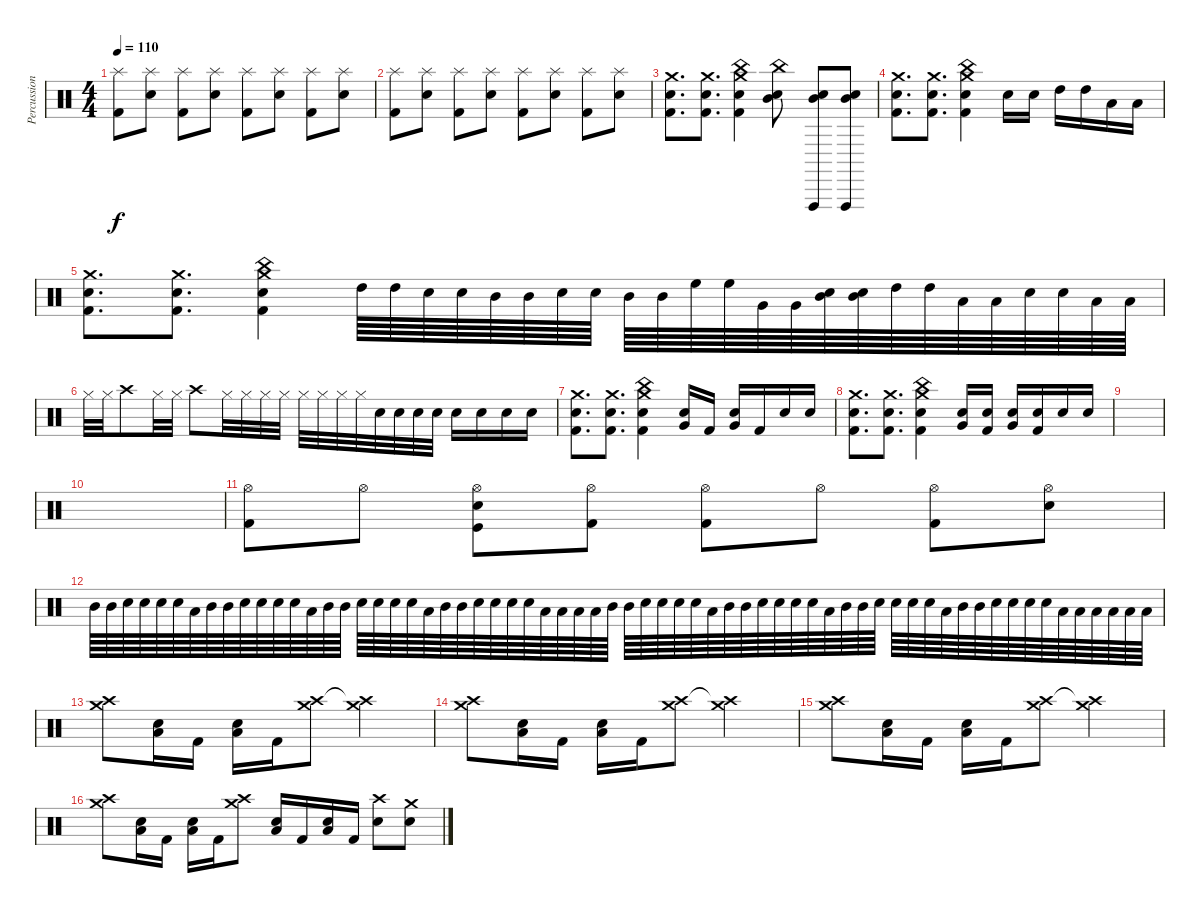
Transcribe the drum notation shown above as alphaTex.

\track ("Percussion" "Percussion") {instrument percussion}
\staff {score}
\articulation defaults
\ts (4 4)
\tempo 110
\clef neutral
\ks c
("Splash (hit)" "Kick (hit) 2").8{dy f} ("Splash (hit)" "Snare (hit) 2").8 ("Splash (hit)" "Kick (hit) 2").8 ("Splash (hit)" "Snare (hit) 2").8 ("Splash (hit)" "Kick (hit) 2").8 ("Splash (hit)" "Snare (hit) 2").8 ("Splash (hit)" "Kick (hit) 2").8 ("Splash (hit)" "Snare (hit) 2").8 |
("Splash (hit)" "Kick (hit) 2").8 ("Splash (hit)" "Snare (hit) 2").8 ("Splash (hit)" "Kick (hit) 2").8 ("Splash (hit)" "Snare (hit) 2").8 ("Splash (hit)" "Kick (hit) 2").8 ("Splash (hit)" "Snare (hit) 2").8 ("Splash (hit)" "Kick (hit) 2").8 ("Splash (hit)" "Snare (hit) 2").8 |
("Crash medium (hit)" "Snare (hit) 2" "Kick (hit) 2").8{d} ("Crash medium (hit)" "Snare (hit) 2" "Kick (hit) 2").8{d} ("Crash medium (hit)" "China (hit)" "Snare (hit) 2" "Kick (hit) 2").4 ("China (hit)" "Snare (hit) 2" "Mid Tom (hit)").8 ("Vibraslap (hit)" "Snare (hit) 2" "Mid Tom (hit)").8 ("Vibraslap (hit)" "Snare (hit) 2" "Mid Tom (hit)").8 |
("Crash medium (hit)" "Snare (hit) 2" "Kick (hit) 2").8{d} ("Crash medium (hit)" "Snare (hit) 2" "Kick (hit) 2").8{d} ("Crash medium (hit)" "China (hit)" "Snare (hit) 2" "Kick (hit) 2").4 "Snare (hit) 2".16 "Snare (hit) 2".16 "High Tom (hit)".16 "High Tom (hit)".16 "Low Floor Tom (hit)".16 "Low Floor Tom (hit)".16 |
("Crash medium (hit)" "Snare (hit) 2" "Kick (hit) 2").8{d} ("Crash medium (hit)" "Snare (hit) 2" "Kick (hit) 2").8{d} ("Crash medium (hit)" "China (hit)" "Snare (hit) 2" "Kick (hit) 2").4 "High Tom (hit)".64 "High Tom (hit)".64 "Snare (hit) 2".64 "Snare (hit) 2".64 "Mid Tom (hit)".64 "Mid Tom (hit)".64 "Snare (hit) 2".64 "Snare (hit) 2".64 "Mid Tom (hit)".64 "Mid Tom (hit)".64 "High Floor Tom (hit)".64 "High Floor Tom (hit)".64 "Very Low Tom (hit)".64 "Very Low Tom (hit)".64 ("Snare (hit) 2" "Mid Tom (hit)").64 ("Snare (hit) 2" "Mid Tom (hit)").64 "High Tom (hit)".64 "High Tom (hit)".64 "Low Tom (hit)".64 "Low Tom (hit)".64 "Snare (hit) 2".64 "Snare (hit) 2".64 "Low Floor Tom (hit)".64 "Low Floor Tom (hit)".64 |
"Hi-Hat (closed)".32 "Hi-Hat (closed)".32 "Crash high (hit)".8 "Hi-Hat (closed)".32 "Hi-Hat (closed)".32 "Crash high (hit)".8 "Hi-Hat (closed)".32 "Hi-Hat (closed)".32 "Hi-Hat (closed)".32 "Hi-Hat (closed)".32 "Hi-Hat (closed)".32 "Hi-Hat (closed)".32 "Hi-Hat (closed)".32 "Hi-Hat (closed)".32 "Snare (hit) 2".32 "Snare (hit) 2".32 "Snare (hit) 2".32 "Snare (hit) 2".32 "Snare (hit) 2".16 "Snare (hit) 2".16 "Snare (hit) 2".16 "Snare (hit) 2".16 |
("Crash medium (hit)" "Snare (hit) 2" "Kick (hit) 2").8{d} ("Crash medium (hit)" "Snare (hit) 2" "Kick (hit) 2").8{d} ("Crash medium (hit)" "China (hit)" "Snare (hit) 2" "Kick (hit) 2").4 ("Very Low Tom (hit)" "Snare (hit) 2").16 "Kick (hit) 2".16 ("Very Low Tom (hit)" "Snare (hit) 2").16 "Kick (hit) 2".16 "Snare (hit) 2".16 "Snare (hit) 2".16 |
("Crash medium (hit)" "Snare (hit) 2" "Kick (hit) 2").8{d} ("Crash medium (hit)" "Snare (hit) 2" "Kick (hit) 2").8{d} ("Crash medium (hit)" "China (hit)" "Snare (hit) 2" "Kick (hit) 2").4 ("Very Low Tom (hit)" "Snare (hit) 2").16 ("Snare (hit) 2" "Kick (hit) 2").16 ("Very Low Tom (hit)" "Snare (hit) 2").16 ("Snare (hit) 2" "Kick (hit) 2").16 "Snare (hit) 2".16 "Snare (hit) 2".16 |
|
|
("Hi-Hat (open)" "Kick (hit) 2").8 "Hi-Hat (open)".8 ("Hi-Hat (open)" "Snare (hit) 2" "Kick (hit)").8 ("Hi-Hat (open)" "Kick (hit) 2").8 ("Hi-Hat (open)" "Kick (hit) 2").8 "Hi-Hat (open)".8 ("Hi-Hat (open)" "Kick (hit) 2").8 ("Hi-Hat (open)" "Snare (hit) 2").8 |
"Mid Tom (hit)".64 "Mid Tom (hit)".64 "Snare (hit) 2".64 "Snare (hit) 2".64 "Snare (hit) 2".64 "Snare (hit) 2".64 "Low Floor Tom (hit)".64 "Mid Tom (hit)".64 "Mid Tom (hit)".64 "Snare (hit) 2".64 "Snare (hit) 2".64 "Snare (hit) 2".64 "Snare (hit) 2".64 "Low Floor Tom (hit)".64 "Mid Tom (hit)".64 "Mid Tom (hit)".64 "Snare (hit) 2".64 "Snare (hit) 2".64 "Snare (hit) 2".64 "Snare (hit) 2".64 "Low Floor Tom (hit)".64 "Mid Tom (hit)".64 "Mid Tom (hit)".64 "Snare (hit) 2".64 "Snare (hit) 2".64 "Snare (hit) 2".64 "Snare (hit) 2".64 "Low Floor Tom (hit)".64 "Low Floor Tom (hit)".64 "Low Floor Tom (hit)".64 "Low Floor Tom (hit)".64 "Mid Tom (hit)".64 "Mid Tom (hit)".64 "Snare (hit) 2".64 "Snare (hit) 2".64 "Snare (hit) 2".64 "Snare (hit) 2".64 "Low Floor Tom (hit)".64 "Mid Tom (hit)".64 "Mid Tom (hit)".64 "Snare (hit) 2".64 "Snare (hit) 2".64 "Snare (hit) 2".64 "Snare (hit) 2".64 "Low Floor Tom (hit)".64 "Mid Tom (hit)".64 "Mid Tom (hit)".64 "Snare (hit) 2".64 "Snare (hit) 2".64 "Snare (hit) 2".64 "Snare (hit) 2".64 "Low Floor Tom (hit)".64 "Mid Tom (hit)".64 "Mid Tom (hit)".64 "Snare (hit) 2".64 "Snare (hit) 2".64 "Snare (hit) 2".64 "Snare (hit) 2".64 "Low Floor Tom (hit)".64 "Low Floor Tom (hit)".64 "Low Floor Tom (hit)".64 "Low Floor Tom (hit)".64 "Low Floor Tom (hit)".64 "Low Floor Tom (hit)".64 |
("Crash high (hit)" "Crash medium (hit)").8 ("Snare (hit) 2" "Low Floor Tom (hit)").16 "Kick (hit) 2".16 ("Snare (hit) 2" "Low Floor Tom (hit)").16 "Kick (hit) 2".16 ("Crash high (hit)" "Crash medium (hit)").8 ("Crash high (hit)"{t} "Crash medium (hit)").2 |
("Crash high (hit)" "Crash medium (hit)").8 ("Snare (hit) 2" "Low Floor Tom (hit)").16 "Kick (hit) 2".16 ("Snare (hit) 2" "Low Floor Tom (hit)").16 "Kick (hit) 2".16 ("Crash high (hit)" "Crash medium (hit)").8 ("Crash high (hit)"{t} "Crash medium (hit)").2 |
("Crash high (hit)" "Crash medium (hit)").8 ("Snare (hit) 2" "Low Floor Tom (hit)").16 "Kick (hit) 2".16 ("Snare (hit) 2" "Low Floor Tom (hit)").16 "Kick (hit) 2".16 ("Crash high (hit)" "Crash medium (hit)").8 ("Crash high (hit)"{t} "Crash medium (hit)").2 |
("Crash high (hit)" "Crash medium (hit)").8 ("Snare (hit) 2" "Low Floor Tom (hit)").16 "Kick (hit) 2".16 ("Snare (hit) 2" "Low Floor Tom (hit)").16 "Kick (hit) 2".16 ("Crash high (hit)" "Crash medium (hit)").8 ("Snare (hit) 2" "Low Floor Tom (hit)").16 "Kick (hit) 2".16 ("Snare (hit) 2" "Low Floor Tom (hit)").16 "Kick (hit) 2".16 ("Crash high (hit)" "Snare (hit) 2").8 ("Crash medium (hit)" "Snare (hit) 2").8
